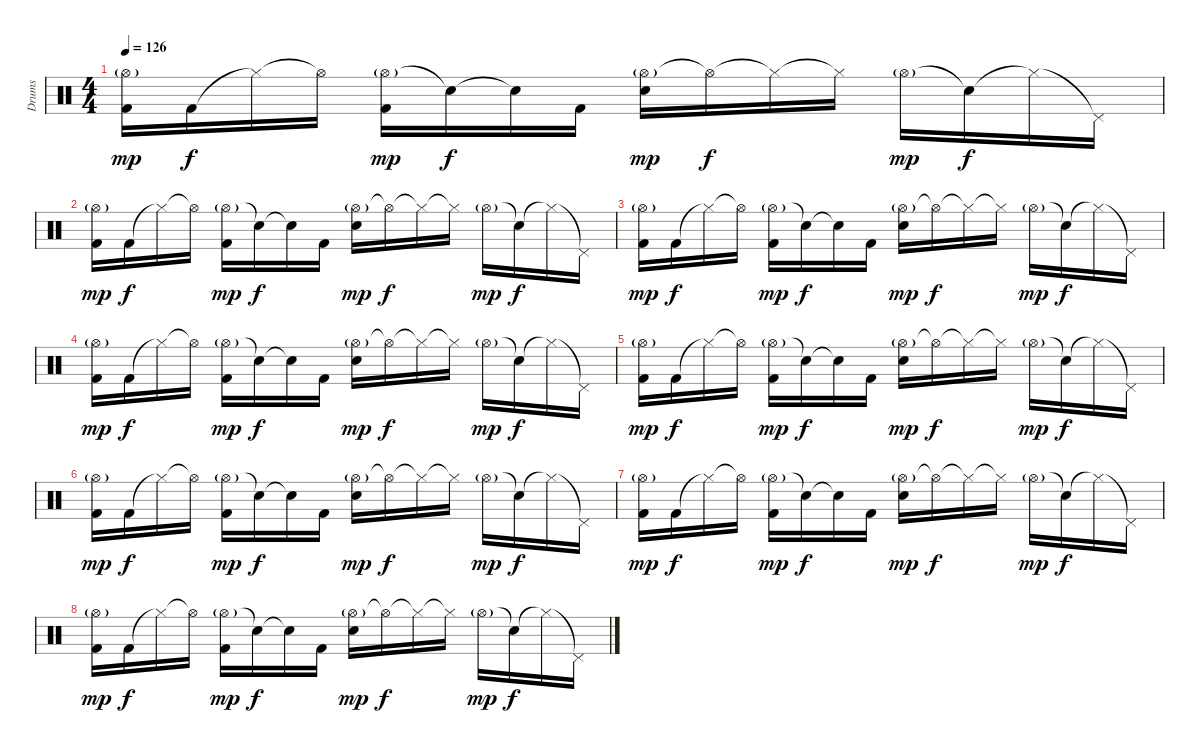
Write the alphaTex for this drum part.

\track ("Drums" "Drums") {instrument percussion}
\staff {score}
\articulation defaults
\ts (4 4)
\tempo 126
\clef neutral
\ks c
("Hi-Hat (open)"{g} "Kick (hit) 2").16{dy mp} "Kick (hit) 2".16{dy f} "Hi-Hat (closed)"{t}.16 "Hi-Hat (open)"{t}.16 ("Hi-Hat (open)"{g} "Kick (hit) 2").16{dy mp} "Snare (hit)"{t}.16{dy f} "Snare (hit)"{t}.16 "Kick (hit) 2".16 ("Hi-Hat (open)"{g} "Electric Snare (hit)").16{dy mp} "Hi-Hat (open)"{t}.16{dy f} "Hi-Hat (closed)"{t}.16 "Hi-Hat (closed)"{t}.16 "Hi-Hat (open)"{g}.16{dy mp} "Snare (hit)"{t}.16{dy f} "Hi-Hat (closed)"{t}.16 "Pedal Hi-Hat (hit)"{t}.16 |
("Hi-Hat (open)"{g} "Kick (hit) 2").16{dy mp} "Kick (hit) 2".16{dy f} "Hi-Hat (closed)"{t}.16 "Hi-Hat (open)"{t}.16 ("Hi-Hat (open)"{g} "Kick (hit) 2").16{dy mp} "Snare (hit)"{t}.16{dy f} "Snare (hit)"{t}.16 "Kick (hit) 2".16 ("Hi-Hat (open)"{g} "Electric Snare (hit)").16{dy mp} "Hi-Hat (open)"{t}.16{dy f} "Hi-Hat (closed)"{t}.16 "Hi-Hat (closed)"{t}.16 "Hi-Hat (open)"{g}.16{dy mp} "Snare (hit)"{t}.16{dy f} "Hi-Hat (closed)"{t}.16 "Pedal Hi-Hat (hit)"{t}.16 |
("Hi-Hat (open)"{g} "Kick (hit) 2").16{dy mp} "Kick (hit) 2".16{dy f} "Hi-Hat (closed)"{t}.16 "Hi-Hat (open)"{t}.16 ("Hi-Hat (open)"{g} "Kick (hit) 2").16{dy mp} "Snare (hit)"{t}.16{dy f} "Snare (hit)"{t}.16 "Kick (hit) 2".16 ("Hi-Hat (open)"{g} "Electric Snare (hit)").16{dy mp} "Hi-Hat (open)"{t}.16{dy f} "Hi-Hat (closed)"{t}.16 "Hi-Hat (closed)"{t}.16 "Hi-Hat (open)"{g}.16{dy mp} "Snare (hit)"{t}.16{dy f} "Hi-Hat (closed)"{t}.16 "Pedal Hi-Hat (hit)"{t}.16 |
("Hi-Hat (open)"{g} "Kick (hit) 2").16{dy mp} "Kick (hit) 2".16{dy f} "Hi-Hat (closed)"{t}.16 "Hi-Hat (open)"{t}.16 ("Hi-Hat (open)"{g} "Kick (hit) 2").16{dy mp} "Snare (hit)"{t}.16{dy f} "Snare (hit)"{t}.16 "Kick (hit) 2".16 ("Hi-Hat (open)"{g} "Electric Snare (hit)").16{dy mp} "Hi-Hat (open)"{t}.16{dy f} "Hi-Hat (closed)"{t}.16 "Hi-Hat (closed)"{t}.16 "Hi-Hat (open)"{g}.16{dy mp} "Snare (hit)"{t}.16{dy f} "Hi-Hat (closed)"{t}.16 "Pedal Hi-Hat (hit)"{t}.16 |
("Hi-Hat (open)"{g} "Kick (hit) 2").16{dy mp} "Kick (hit) 2".16{dy f} "Hi-Hat (closed)"{t}.16 "Hi-Hat (open)"{t}.16 ("Hi-Hat (open)"{g} "Kick (hit) 2").16{dy mp} "Snare (hit)"{t}.16{dy f} "Snare (hit)"{t}.16 "Kick (hit) 2".16 ("Hi-Hat (open)"{g} "Electric Snare (hit)").16{dy mp} "Hi-Hat (open)"{t}.16{dy f} "Hi-Hat (closed)"{t}.16 "Hi-Hat (closed)"{t}.16 "Hi-Hat (open)"{g}.16{dy mp} "Snare (hit)"{t}.16{dy f} "Hi-Hat (closed)"{t}.16 "Pedal Hi-Hat (hit)"{t}.16 |
("Hi-Hat (open)"{g} "Kick (hit) 2").16{dy mp} "Kick (hit) 2".16{dy f} "Hi-Hat (closed)"{t}.16 "Hi-Hat (open)"{t}.16 ("Hi-Hat (open)"{g} "Kick (hit) 2").16{dy mp} "Snare (hit)"{t}.16{dy f} "Snare (hit)"{t}.16 "Kick (hit) 2".16 ("Hi-Hat (open)"{g} "Electric Snare (hit)").16{dy mp} "Hi-Hat (open)"{t}.16{dy f} "Hi-Hat (closed)"{t}.16 "Hi-Hat (closed)"{t}.16 "Hi-Hat (open)"{g}.16{dy mp} "Snare (hit)"{t}.16{dy f} "Hi-Hat (closed)"{t}.16 "Pedal Hi-Hat (hit)"{t}.16 |
("Hi-Hat (open)"{g} "Kick (hit) 2").16{dy mp} "Kick (hit) 2".16{dy f} "Hi-Hat (closed)"{t}.16 "Hi-Hat (open)"{t}.16 ("Hi-Hat (open)"{g} "Kick (hit) 2").16{dy mp} "Snare (hit)"{t}.16{dy f} "Snare (hit)"{t}.16 "Kick (hit) 2".16 ("Hi-Hat (open)"{g} "Electric Snare (hit)").16{dy mp} "Hi-Hat (open)"{t}.16{dy f} "Hi-Hat (closed)"{t}.16 "Hi-Hat (closed)"{t}.16 "Hi-Hat (open)"{g}.16{dy mp} "Snare (hit)"{t}.16{dy f} "Hi-Hat (closed)"{t}.16 "Pedal Hi-Hat (hit)"{t}.16 |
("Hi-Hat (open)"{g} "Kick (hit) 2").16{dy mp} "Kick (hit) 2".16{dy f} "Hi-Hat (closed)"{t}.16 "Hi-Hat (open)"{t}.16 ("Hi-Hat (open)"{g} "Kick (hit) 2").16{dy mp} "Snare (hit)"{t}.16{dy f} "Snare (hit)"{t}.16 "Kick (hit) 2".16 ("Hi-Hat (open)"{g} "Electric Snare (hit)").16{dy mp} "Hi-Hat (open)"{t}.16{dy f} "Hi-Hat (closed)"{t}.16 "Hi-Hat (closed)"{t}.16 "Hi-Hat (open)"{g}.16{dy mp} "Snare (hit)"{t}.16{dy f} "Hi-Hat (closed)"{t}.16 "Pedal Hi-Hat (hit)"{t}.16
